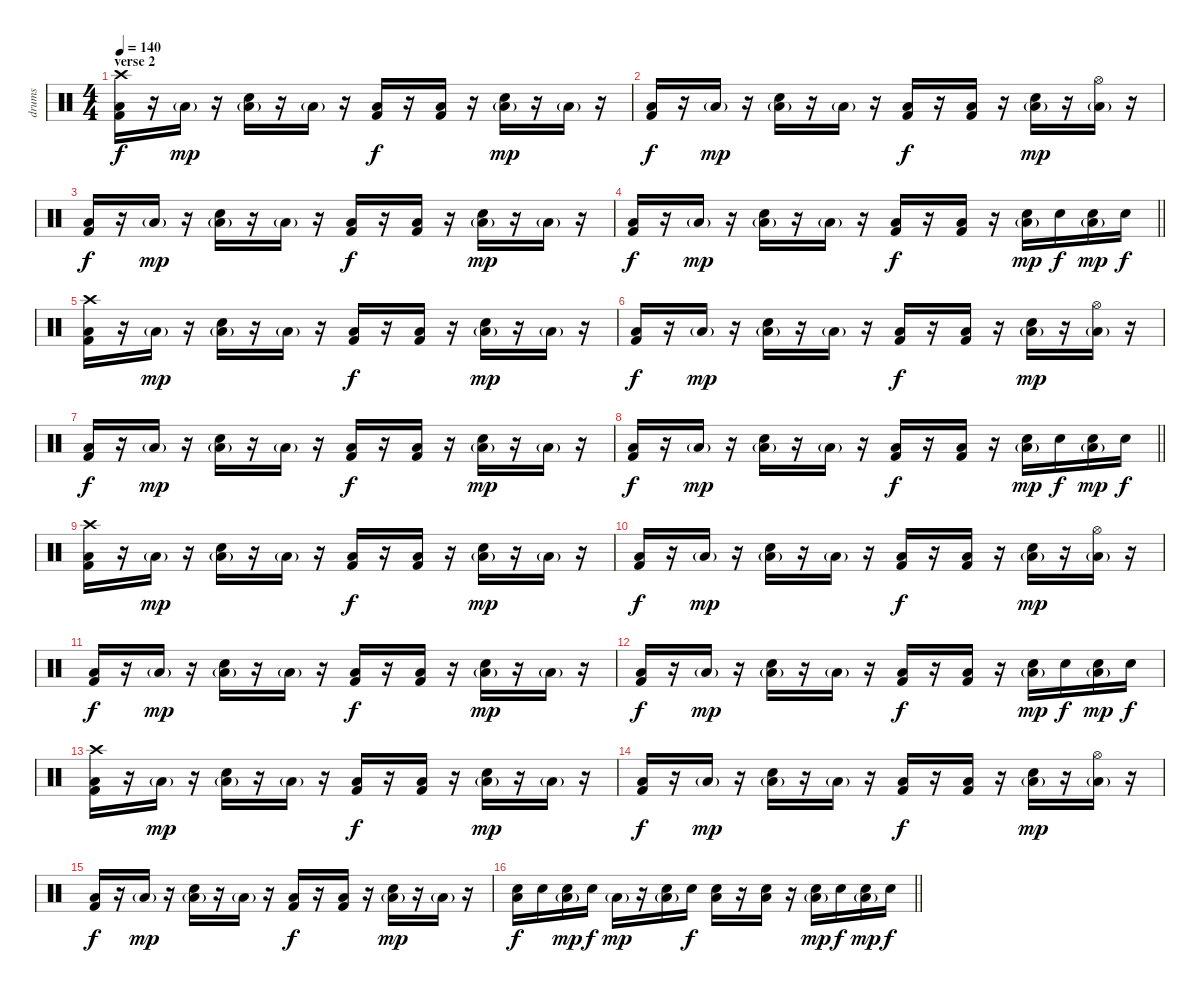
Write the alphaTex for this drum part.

\track ("drums" "drums") {instrument percussion}
\staff {score}
\articulation defaults
\ts (4 4)
\section ("" "verse 2")
\tempo 140
\clef neutral
\ks c
("Kick (hit) 2" "Low Floor Tom (hit)" "Crash high (hit)").16{dy f} r.16 "Low Floor Tom (hit)"{g}.16{dy mp} r.16 ("Electric Snare (hit)" "Low Floor Tom (hit)"{g}).16 r.16 "Low Floor Tom (hit)"{g}.16 r.16 ("Kick (hit) 2" "Low Floor Tom (hit)").16{dy f} r.16 ("Kick (hit) 2" "Low Floor Tom (hit)").16 r.16 ("Electric Snare (hit)" "Low Floor Tom (hit)"{g}).16{dy mp} r.16 "Low Floor Tom (hit)"{g}.16 r.16 |
("Kick (hit) 2" "Low Floor Tom (hit)").16{dy f} r.16 "Low Floor Tom (hit)"{g}.16{dy mp} r.16 ("Electric Snare (hit)" "Low Floor Tom (hit)"{g}).16 r.16 "Low Floor Tom (hit)"{g}.16 r.16 ("Kick (hit) 2" "Low Floor Tom (hit)").16{dy f} r.16 ("Kick (hit) 2" "Low Floor Tom (hit)").16 r.16 ("Electric Snare (hit)" "Low Floor Tom (hit)"{g}).16{dy mp} r.16 ("Hi-Hat (open)" "Low Floor Tom (hit)"{g}).16 r.16 |
("Kick (hit) 2" "Low Floor Tom (hit)").16{dy f} r.16 "Low Floor Tom (hit)"{g}.16{dy mp} r.16 ("Electric Snare (hit)" "Low Floor Tom (hit)"{g}).16 r.16 "Low Floor Tom (hit)"{g}.16 r.16 ("Kick (hit) 2" "Low Floor Tom (hit)").16{dy f} r.16 ("Kick (hit) 2" "Low Floor Tom (hit)").16 r.16 ("Electric Snare (hit)" "Low Floor Tom (hit)"{g}).16{dy mp} r.16 "Low Floor Tom (hit)"{g}.16 r.16 |
\barLineRight lightlight
("Kick (hit) 2" "Low Floor Tom (hit)").16{dy f} r.16 "Low Floor Tom (hit)"{g}.16{dy mp} r.16 ("Electric Snare (hit)" "Low Floor Tom (hit)"{g}).16 r.16 "Low Floor Tom (hit)"{g}.16 r.16 ("Kick (hit) 2" "Low Floor Tom (hit)").16{dy f} r.16 ("Kick (hit) 2" "Low Floor Tom (hit)").16 r.16 ("Electric Snare (hit)" "Low Floor Tom (hit)"{g}).16{dy mp} "Electric Snare (hit)".16{dy f} ("Electric Snare (hit)" "Low Floor Tom (hit)"{g}).16{dy mp} "Electric Snare (hit)".16{dy f} |
("Kick (hit) 2" "Low Floor Tom (hit)" "Crash high (hit)").16 r.16 "Low Floor Tom (hit)"{g}.16{dy mp} r.16 ("Electric Snare (hit)" "Low Floor Tom (hit)"{g}).16 r.16 "Low Floor Tom (hit)"{g}.16 r.16 ("Kick (hit) 2" "Low Floor Tom (hit)").16{dy f} r.16 ("Kick (hit) 2" "Low Floor Tom (hit)").16 r.16 ("Electric Snare (hit)" "Low Floor Tom (hit)"{g}).16{dy mp} r.16 "Low Floor Tom (hit)"{g}.16 r.16 |
("Kick (hit) 2" "Low Floor Tom (hit)").16{dy f} r.16 "Low Floor Tom (hit)"{g}.16{dy mp} r.16 ("Electric Snare (hit)" "Low Floor Tom (hit)"{g}).16 r.16 "Low Floor Tom (hit)"{g}.16 r.16 ("Kick (hit) 2" "Low Floor Tom (hit)").16{dy f} r.16 ("Kick (hit) 2" "Low Floor Tom (hit)").16 r.16 ("Electric Snare (hit)" "Low Floor Tom (hit)"{g}).16{dy mp} r.16 ("Hi-Hat (open)" "Low Floor Tom (hit)"{g}).16 r.16 |
("Kick (hit) 2" "Low Floor Tom (hit)").16{dy f} r.16 "Low Floor Tom (hit)"{g}.16{dy mp} r.16 ("Electric Snare (hit)" "Low Floor Tom (hit)"{g}).16 r.16 "Low Floor Tom (hit)"{g}.16 r.16 ("Kick (hit) 2" "Low Floor Tom (hit)").16{dy f} r.16 ("Kick (hit) 2" "Low Floor Tom (hit)").16 r.16 ("Electric Snare (hit)" "Low Floor Tom (hit)"{g}).16{dy mp} r.16 "Low Floor Tom (hit)"{g}.16 r.16 |
\barLineRight lightlight
("Kick (hit) 2" "Low Floor Tom (hit)").16{dy f} r.16 "Low Floor Tom (hit)"{g}.16{dy mp} r.16 ("Electric Snare (hit)" "Low Floor Tom (hit)"{g}).16 r.16 "Low Floor Tom (hit)"{g}.16 r.16 ("Kick (hit) 2" "Low Floor Tom (hit)").16{dy f} r.16 ("Kick (hit) 2" "Low Floor Tom (hit)").16 r.16 ("Electric Snare (hit)" "Low Floor Tom (hit)"{g}).16{dy mp} "Electric Snare (hit)".16{dy f} ("Electric Snare (hit)" "Low Floor Tom (hit)"{g}).16{dy mp} "Electric Snare (hit)".16{dy f} |
("Kick (hit) 2" "Low Floor Tom (hit)" "Crash high (hit)").16 r.16 "Low Floor Tom (hit)"{g}.16{dy mp} r.16 ("Electric Snare (hit)" "Low Floor Tom (hit)"{g}).16 r.16 "Low Floor Tom (hit)"{g}.16 r.16 ("Kick (hit) 2" "Low Floor Tom (hit)").16{dy f} r.16 ("Kick (hit) 2" "Low Floor Tom (hit)").16 r.16 ("Electric Snare (hit)" "Low Floor Tom (hit)"{g}).16{dy mp} r.16 "Low Floor Tom (hit)"{g}.16 r.16 |
("Kick (hit) 2" "Low Floor Tom (hit)").16{dy f} r.16 "Low Floor Tom (hit)"{g}.16{dy mp} r.16 ("Electric Snare (hit)" "Low Floor Tom (hit)"{g}).16 r.16 "Low Floor Tom (hit)"{g}.16 r.16 ("Kick (hit) 2" "Low Floor Tom (hit)").16{dy f} r.16 ("Kick (hit) 2" "Low Floor Tom (hit)").16 r.16 ("Electric Snare (hit)" "Low Floor Tom (hit)"{g}).16{dy mp} r.16 ("Hi-Hat (open)" "Low Floor Tom (hit)"{g}).16 r.16 |
("Kick (hit) 2" "Low Floor Tom (hit)").16{dy f} r.16 "Low Floor Tom (hit)"{g}.16{dy mp} r.16 ("Electric Snare (hit)" "Low Floor Tom (hit)"{g}).16 r.16 "Low Floor Tom (hit)"{g}.16 r.16 ("Kick (hit) 2" "Low Floor Tom (hit)").16{dy f} r.16 ("Kick (hit) 2" "Low Floor Tom (hit)").16 r.16 ("Electric Snare (hit)" "Low Floor Tom (hit)"{g}).16{dy mp} r.16 "Low Floor Tom (hit)"{g}.16 r.16 |
("Kick (hit) 2" "Low Floor Tom (hit)").16{dy f} r.16 "Low Floor Tom (hit)"{g}.16{dy mp} r.16 ("Electric Snare (hit)" "Low Floor Tom (hit)"{g}).16 r.16 "Low Floor Tom (hit)"{g}.16 r.16 ("Kick (hit) 2" "Low Floor Tom (hit)").16{dy f} r.16 ("Kick (hit) 2" "Low Floor Tom (hit)").16 r.16 ("Electric Snare (hit)" "Low Floor Tom (hit)"{g}).16{dy mp} "Electric Snare (hit)".16{dy f} ("Electric Snare (hit)" "Low Floor Tom (hit)"{g}).16{dy mp} "Electric Snare (hit)".16{dy f} |
("Kick (hit) 2" "Low Floor Tom (hit)" "Crash high (hit)").16 r.16 "Low Floor Tom (hit)"{g}.16{dy mp} r.16 ("Electric Snare (hit)" "Low Floor Tom (hit)"{g}).16 r.16 "Low Floor Tom (hit)"{g}.16 r.16 ("Kick (hit) 2" "Low Floor Tom (hit)").16{dy f} r.16 ("Kick (hit) 2" "Low Floor Tom (hit)").16 r.16 ("Electric Snare (hit)" "Low Floor Tom (hit)"{g}).16{dy mp} r.16 "Low Floor Tom (hit)"{g}.16 r.16 |
("Kick (hit) 2" "Low Floor Tom (hit)").16{dy f} r.16 "Low Floor Tom (hit)"{g}.16{dy mp} r.16 ("Electric Snare (hit)" "Low Floor Tom (hit)"{g}).16 r.16 "Low Floor Tom (hit)"{g}.16 r.16 ("Kick (hit) 2" "Low Floor Tom (hit)").16{dy f} r.16 ("Kick (hit) 2" "Low Floor Tom (hit)").16 r.16 ("Electric Snare (hit)" "Low Floor Tom (hit)"{g}).16{dy mp} r.16 ("Hi-Hat (open)" "Low Floor Tom (hit)"{g}).16 r.16 |
("Kick (hit) 2" "Low Floor Tom (hit)").16{dy f} r.16 "Low Floor Tom (hit)"{g}.16{dy mp} r.16 ("Electric Snare (hit)" "Low Floor Tom (hit)"{g}).16 r.16 "Low Floor Tom (hit)"{g}.16 r.16 ("Kick (hit) 2" "Low Floor Tom (hit)").16{dy f} r.16 ("Kick (hit) 2" "Low Floor Tom (hit)").16 r.16 ("Electric Snare (hit)" "Low Floor Tom (hit)"{g}).16{dy mp} r.16 "Low Floor Tom (hit)"{g}.16 r.16 |
\barLineRight lightlight
("Electric Snare (hit)" "Low Floor Tom (hit)").16{dy f} "Electric Snare (hit)".16 ("Electric Snare (hit)" "Low Floor Tom (hit)"{g}).16{dy mp} "Electric Snare (hit)".16{dy f} "Low Floor Tom (hit)"{g}.16{dy mp} r.16 ("Electric Snare (hit)" "Low Floor Tom (hit)"{g}).16 "Electric Snare (hit)".16{dy f} ("Electric Snare (hit)" "Low Floor Tom (hit)").16 r.16 ("Electric Snare (hit)" "Low Floor Tom (hit)").16 r.16 ("Electric Snare (hit)" "Low Floor Tom (hit)"{g}).16{dy mp} "Electric Snare (hit)".16{dy f} ("Electric Snare (hit)" "Low Floor Tom (hit)"{g}).16{dy mp} "Electric Snare (hit)".16{dy f}
